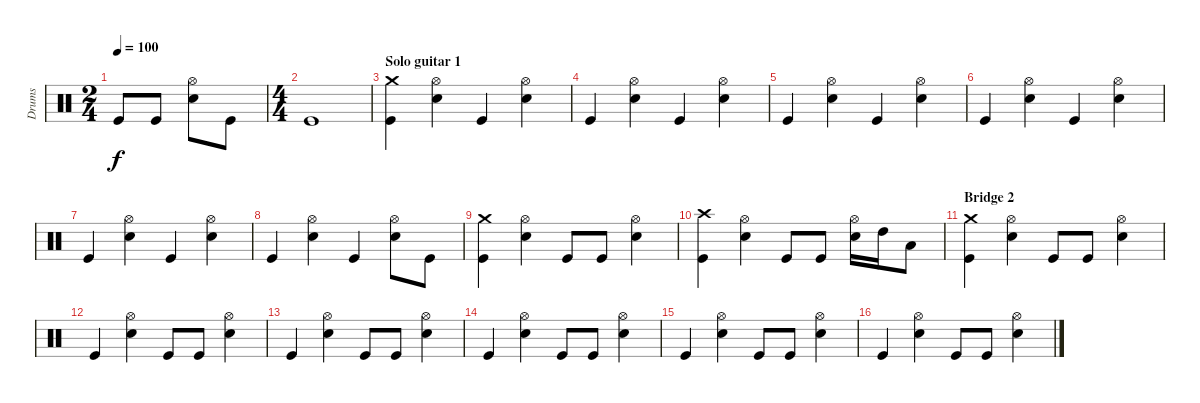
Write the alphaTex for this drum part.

\track ("Drums" "Drums") {instrument percussion}
\staff {score}
\articulation defaults
\ts (2 4)
\tempo 100
\clef neutral
\ks c "Kick (hit)".8{dy f} "Kick (hit)".8
("Hi-Hat (open)" "Electric Snare (hit)").8 "Kick (hit)".8 |
\ts (4 4)
"Kick (hit)".1 |
\section ("" "Solo guitar 1")
("Crash medium (hit)" "Kick (hit)").4 ("Hi-Hat (open)" "Electric Snare (hit)").4 "Kick (hit)".4 ("Hi-Hat (open)" "Electric Snare (hit)").4 |
"Kick (hit)".4 ("Hi-Hat (open)" "Electric Snare (hit)").4 "Kick (hit)".4 ("Hi-Hat (open)" "Electric Snare (hit)").4 |
"Kick (hit)".4 ("Hi-Hat (open)" "Electric Snare (hit)").4 "Kick (hit)".4 ("Hi-Hat (open)" "Electric Snare (hit)").4 |
"Kick (hit)".4 ("Hi-Hat (open)" "Electric Snare (hit)").4 "Kick (hit)".4 ("Hi-Hat (open)" "Electric Snare (hit)").4 |
"Kick (hit)".4 ("Hi-Hat (open)" "Electric Snare (hit)").4 "Kick (hit)".4 ("Hi-Hat (open)" "Electric Snare (hit)").4 |
"Kick (hit)".4 ("Hi-Hat (open)" "Electric Snare (hit)").4 "Kick (hit)".4 ("Hi-Hat (open)" "Electric Snare (hit)").8 "Kick (hit)".8 |
("Crash medium (hit)" "Kick (hit)").4 ("Hi-Hat (open)" "Electric Snare (hit)").4 "Kick (hit)".8 "Kick (hit)".8 ("Hi-Hat (open)" "Electric Snare (hit)").4 |
("Crash high (hit)" "Kick (hit)").4 ("Hi-Hat (open)" "Electric Snare (hit)").4 "Kick (hit)".8 "Kick (hit)".8 ("Hi-Hat (open)" "Electric Snare (hit)").16 "High Tom (hit)".16 "Low Tom (hit)".8 |
\section ("" "Bridge 2")
("Crash medium (hit)" "Kick (hit)").4 ("Hi-Hat (open)" "Electric Snare (hit)").4 "Kick (hit)".8 "Kick (hit)".8 ("Hi-Hat (open)" "Electric Snare (hit)").4 |
"Kick (hit)".4 ("Hi-Hat (open)" "Electric Snare (hit)").4 "Kick (hit)".8 "Kick (hit)".8 ("Hi-Hat (open)" "Electric Snare (hit)").4 |
"Kick (hit)".4 ("Hi-Hat (open)" "Electric Snare (hit)").4 "Kick (hit)".8 "Kick (hit)".8 ("Hi-Hat (open)" "Electric Snare (hit)").4 |
"Kick (hit)".4 ("Hi-Hat (open)" "Electric Snare (hit)").4 "Kick (hit)".8 "Kick (hit)".8 ("Hi-Hat (open)" "Electric Snare (hit)").4 |
"Kick (hit)".4 ("Hi-Hat (open)" "Electric Snare (hit)").4 "Kick (hit)".8 "Kick (hit)".8 ("Hi-Hat (open)" "Electric Snare (hit)").4 |
"Kick (hit)".4 ("Hi-Hat (open)" "Electric Snare (hit)").4 "Kick (hit)".8 "Kick (hit)".8 ("Hi-Hat (open)" "Electric Snare (hit)").4
